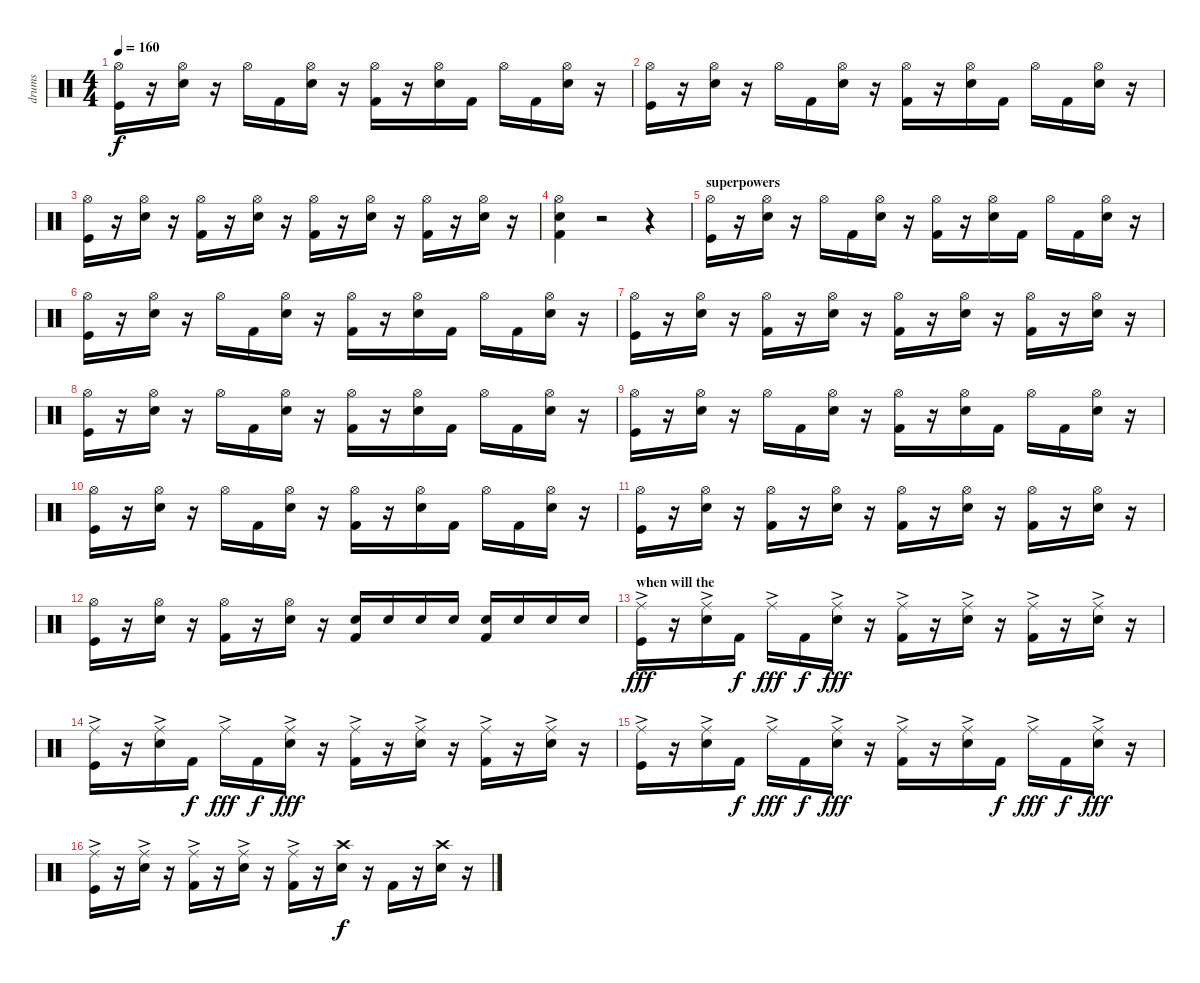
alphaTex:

\track ("drums" "drums") {instrument percussion}
\staff {score}
\articulation defaults
\ts (4 4)
\tempo 160
\clef neutral
\ks c
("Hi-Hat (open)" "Kick (hit)").16{dy f} r.16 ("Hi-Hat (open)" "Snare (hit) 2").16 r.16 "Hi-Hat (open)".16 "Kick (hit) 2".16 ("Hi-Hat (open)" "Snare (hit) 2").16 r.16 ("Hi-Hat (open)" "Kick (hit) 2").16 r.16 ("Hi-Hat (open)" "Snare (hit) 2").16 "Kick (hit) 2".16 "Hi-Hat (open)".16 "Kick (hit) 2".16 ("Hi-Hat (open)" "Snare (hit) 2").16 r.16 |
("Hi-Hat (open)" "Kick (hit)").16 r.16 ("Hi-Hat (open)" "Snare (hit) 2").16 r.16 "Hi-Hat (open)".16 "Kick (hit) 2".16 ("Hi-Hat (open)" "Snare (hit) 2").16 r.16 ("Hi-Hat (open)" "Kick (hit) 2").16 r.16 ("Hi-Hat (open)" "Snare (hit) 2").16 "Kick (hit) 2".16 "Hi-Hat (open)".16 "Kick (hit) 2".16 ("Hi-Hat (open)" "Snare (hit) 2").16 r.16 |
("Hi-Hat (open)" "Kick (hit)").16 r.16 ("Hi-Hat (open)" "Snare (hit) 2").16 r.16 ("Hi-Hat (open)" "Kick (hit) 2").16 r.16 ("Hi-Hat (open)" "Snare (hit) 2").16 r.16 ("Hi-Hat (open)" "Kick (hit) 2").16 r.16 ("Hi-Hat (open)" "Snare (hit) 2").16 r.16 ("Hi-Hat (open)" "Kick (hit) 2").16 r.16 ("Hi-Hat (open)" "Snare (hit) 2").16 r.16 |
("Hi-Hat (open)" "Snare (hit) 2" "Kick (hit) 2").4 r.2 r.4 |
\section ("" "superpowers")
("Hi-Hat (open)" "Kick (hit)").16 r.16 ("Hi-Hat (open)" "Snare (hit) 2").16 r.16 "Hi-Hat (open)".16 "Kick (hit) 2".16 ("Hi-Hat (open)" "Snare (hit) 2").16 r.16 ("Hi-Hat (open)" "Kick (hit) 2").16 r.16 ("Hi-Hat (open)" "Snare (hit) 2").16 "Kick (hit) 2".16 "Hi-Hat (open)".16 "Kick (hit) 2".16 ("Hi-Hat (open)" "Snare (hit) 2").16 r.16 |
("Hi-Hat (open)" "Kick (hit)").16 r.16 ("Hi-Hat (open)" "Snare (hit) 2").16 r.16 "Hi-Hat (open)".16 "Kick (hit) 2".16 ("Hi-Hat (open)" "Snare (hit) 2").16 r.16 ("Hi-Hat (open)" "Kick (hit) 2").16 r.16 ("Hi-Hat (open)" "Snare (hit) 2").16 "Kick (hit) 2".16 "Hi-Hat (open)".16 "Kick (hit) 2".16 ("Hi-Hat (open)" "Snare (hit) 2").16 r.16 |
("Hi-Hat (open)" "Kick (hit)").16 r.16 ("Hi-Hat (open)" "Snare (hit) 2").16 r.16 ("Hi-Hat (open)" "Kick (hit) 2").16 r.16 ("Hi-Hat (open)" "Snare (hit) 2").16 r.16 ("Hi-Hat (open)" "Kick (hit) 2").16 r.16 ("Hi-Hat (open)" "Snare (hit) 2").16 r.16 ("Hi-Hat (open)" "Kick (hit) 2").16 r.16 ("Hi-Hat (open)" "Snare (hit) 2").16 r.16 |
("Hi-Hat (open)" "Kick (hit)").16 r.16 ("Hi-Hat (open)" "Snare (hit) 2").16 r.16 "Hi-Hat (open)".16 "Kick (hit) 2".16 ("Hi-Hat (open)" "Snare (hit) 2").16 r.16 ("Hi-Hat (open)" "Kick (hit) 2").16 r.16 ("Hi-Hat (open)" "Snare (hit) 2").16 "Kick (hit) 2".16 "Hi-Hat (open)".16 "Kick (hit) 2".16 ("Hi-Hat (open)" "Snare (hit) 2").16 r.16 |
("Hi-Hat (open)" "Kick (hit)").16 r.16 ("Hi-Hat (open)" "Snare (hit) 2").16 r.16 "Hi-Hat (open)".16 "Kick (hit) 2".16 ("Hi-Hat (open)" "Snare (hit) 2").16 r.16 ("Hi-Hat (open)" "Kick (hit) 2").16 r.16 ("Hi-Hat (open)" "Snare (hit) 2").16 "Kick (hit) 2".16 "Hi-Hat (open)".16 "Kick (hit) 2".16 ("Hi-Hat (open)" "Snare (hit) 2").16 r.16 |
("Hi-Hat (open)" "Kick (hit)").16 r.16 ("Hi-Hat (open)" "Snare (hit) 2").16 r.16 "Hi-Hat (open)".16 "Kick (hit) 2".16 ("Hi-Hat (open)" "Snare (hit) 2").16 r.16 ("Hi-Hat (open)" "Kick (hit) 2").16 r.16 ("Hi-Hat (open)" "Snare (hit) 2").16 "Kick (hit) 2".16 "Hi-Hat (open)".16 "Kick (hit) 2".16 ("Hi-Hat (open)" "Snare (hit) 2").16 r.16 |
("Hi-Hat (open)" "Kick (hit)").16 r.16 ("Hi-Hat (open)" "Snare (hit) 2").16 r.16 ("Hi-Hat (open)" "Kick (hit) 2").16 r.16 ("Hi-Hat (open)" "Snare (hit) 2").16 r.16 ("Hi-Hat (open)" "Kick (hit) 2").16 r.16 ("Hi-Hat (open)" "Snare (hit) 2").16 r.16 ("Hi-Hat (open)" "Kick (hit) 2").16 r.16 ("Hi-Hat (open)" "Snare (hit) 2").16 r.16 |
("Hi-Hat (open)" "Kick (hit)").16 r.16 ("Hi-Hat (open)" "Snare (hit) 2").16 r.16 ("Hi-Hat (open)" "Kick (hit) 2").16 r.16 ("Hi-Hat (open)" "Snare (hit) 2").16 r.16 ("Snare (hit) 2" "Kick (hit) 2").16 "Snare (hit) 2".16 "Snare (hit) 2".16 "Snare (hit) 2".16 ("Snare (hit) 2" "Kick (hit) 2").16 "Snare (hit) 2".16 "Snare (hit) 2".16 "Snare (hit) 2".16 |
\section ("" "when will the")
("Ride (middle)"{ac} "Kick (hit)").16{dy fff} r.16 ("Ride (middle)"{ac} "Snare (hit) 2").16 "Kick (hit) 2".16{dy f} "Ride (middle)"{ac}.16{dy fff} "Kick (hit) 2".16{dy f} ("Ride (middle)"{ac} "Snare (hit) 2").16{dy fff} r.16 ("Ride (middle)"{ac} "Kick (hit) 2").16 r.16 ("Ride (middle)"{ac} "Snare (hit) 2").16 r.16 ("Ride (middle)"{ac} "Kick (hit) 2").16 r.16 ("Ride (middle)"{ac} "Snare (hit) 2").16 r.16 |
("Ride (middle)"{ac} "Kick (hit)").16 r.16 ("Ride (middle)"{ac} "Snare (hit) 2").16 "Kick (hit) 2".16{dy f} "Ride (middle)"{ac}.16{dy fff} "Kick (hit) 2".16{dy f} ("Ride (middle)"{ac} "Snare (hit) 2").16{dy fff} r.16 ("Ride (middle)"{ac} "Kick (hit) 2").16 r.16 ("Ride (middle)"{ac} "Snare (hit) 2").16 r.16 ("Ride (middle)"{ac} "Kick (hit) 2").16 r.16 ("Ride (middle)"{ac} "Snare (hit) 2").16 r.16 |
("Ride (middle)"{ac} "Kick (hit)").16 r.16 ("Ride (middle)"{ac} "Snare (hit) 2").16 "Kick (hit) 2".16{dy f} "Ride (middle)"{ac}.16{dy fff} "Kick (hit) 2".16{dy f} ("Ride (middle)"{ac} "Snare (hit) 2").16{dy fff} r.16 ("Ride (middle)"{ac} "Kick (hit) 2").16 r.16 ("Ride (middle)"{ac} "Snare (hit) 2").16 "Kick (hit) 2".16{dy f} "Ride (middle)"{ac}.16{dy fff} "Kick (hit) 2".16{dy f} ("Ride (middle)"{ac} "Snare (hit) 2").16{dy fff} r.16 |
("Ride (middle)"{ac} "Kick (hit)").16 r.16 ("Ride (middle)"{ac} "Snare (hit) 2").16 r.16 ("Ride (middle)"{ac} "Kick (hit) 2").16 r.16 ("Ride (middle)"{ac} "Snare (hit) 2").16 r.16 ("Ride (middle)"{ac} "Kick (hit) 2").16 r.16 ("Crash high (hit)" "Snare (hit) 2").16{dy f} r.16 "Kick (hit) 2".16 r.16 ("Crash high (hit)" "Snare (hit) 2").16 r.16
